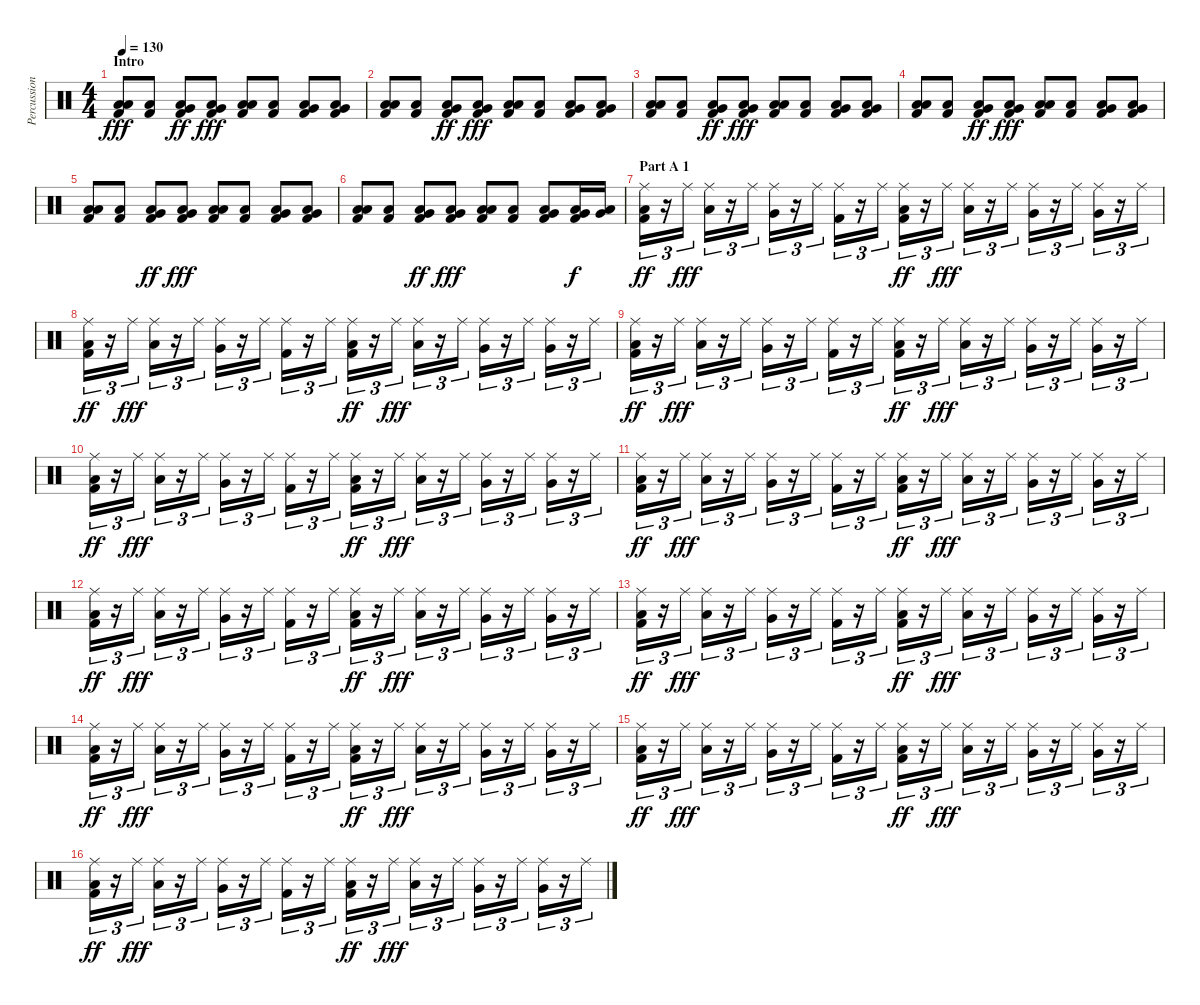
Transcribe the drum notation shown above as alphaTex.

\track ("Percussion" "Percussion") {instrument percussion}
\staff {score}
\articulation defaults
\ts (4 4)
\section ("" "Intro")
\tempo 130
\clef neutral
\ks c
("Low Tom (hit)" "Low Floor Tom (hit)" "Kick (hit) 2").8{dy fff} ("Low Tom (hit)" "Kick (hit) 2").8 ("Low Tom (hit)" "Very Low Tom (hit)" "Kick (hit) 2").8{dy ff} ("Low Tom (hit)" "Very Low Tom (hit)" "Kick (hit) 2").8{dy fff} ("Low Tom (hit)" "Low Floor Tom (hit)" "Kick (hit) 2").8 ("Low Tom (hit)" "Kick (hit) 2").8 ("Low Tom (hit)" "Very Low Tom (hit)" "Kick (hit) 2").8 ("Low Tom (hit)" "Very Low Tom (hit)" "Kick (hit) 2").8 |
("Low Tom (hit)" "Low Floor Tom (hit)" "Kick (hit) 2").8 ("Low Tom (hit)" "Kick (hit) 2").8 ("Low Tom (hit)" "Very Low Tom (hit)" "Kick (hit) 2").8{dy ff} ("Low Tom (hit)" "Very Low Tom (hit)" "Kick (hit) 2").8{dy fff} ("Low Tom (hit)" "Low Floor Tom (hit)" "Kick (hit) 2").8 ("Low Tom (hit)" "Kick (hit) 2").8 ("Low Tom (hit)" "Very Low Tom (hit)" "Kick (hit) 2").8 ("Low Tom (hit)" "Very Low Tom (hit)" "Kick (hit) 2").8 |
("Low Tom (hit)" "Low Floor Tom (hit)" "Kick (hit) 2").8 ("Low Tom (hit)" "Kick (hit) 2").8 ("Low Tom (hit)" "Very Low Tom (hit)" "Kick (hit) 2").8{dy ff} ("Low Tom (hit)" "Very Low Tom (hit)" "Kick (hit) 2").8{dy fff} ("Low Tom (hit)" "Low Floor Tom (hit)" "Kick (hit) 2").8 ("Low Tom (hit)" "Kick (hit) 2").8 ("Low Tom (hit)" "Very Low Tom (hit)" "Kick (hit) 2").8 ("Low Tom (hit)" "Very Low Tom (hit)" "Kick (hit) 2").8 |
("Low Tom (hit)" "Low Floor Tom (hit)" "Kick (hit) 2").8 ("Low Tom (hit)" "Kick (hit) 2").8 ("Low Tom (hit)" "Very Low Tom (hit)" "Kick (hit) 2").8{dy ff} ("Low Tom (hit)" "Very Low Tom (hit)" "Kick (hit) 2").8{dy fff} ("Low Tom (hit)" "Low Floor Tom (hit)" "Kick (hit) 2").8 ("Low Tom (hit)" "Kick (hit) 2").8 ("Low Tom (hit)" "Very Low Tom (hit)" "Kick (hit) 2").8 ("Low Tom (hit)" "Very Low Tom (hit)" "Kick (hit) 2").8 |
("Low Tom (hit)" "Low Floor Tom (hit)" "Kick (hit) 2").8 ("Low Tom (hit)" "Kick (hit) 2").8 ("Low Tom (hit)" "Very Low Tom (hit)" "Kick (hit) 2").8{dy ff} ("Low Tom (hit)" "Very Low Tom (hit)" "Kick (hit) 2").8{dy fff} ("Low Tom (hit)" "Low Floor Tom (hit)" "Kick (hit) 2").8 ("Low Tom (hit)" "Kick (hit) 2").8 ("Low Tom (hit)" "Very Low Tom (hit)" "Kick (hit) 2").8 ("Low Tom (hit)" "Very Low Tom (hit)" "Kick (hit) 2").8 |
("Low Tom (hit)" "Low Floor Tom (hit)" "Kick (hit) 2").8 ("Low Tom (hit)" "Kick (hit) 2").8 ("Low Tom (hit)" "Very Low Tom (hit)" "Kick (hit) 2").8{dy ff} ("Low Tom (hit)" "Very Low Tom (hit)" "Kick (hit) 2").8{dy fff} ("Low Tom (hit)" "Low Floor Tom (hit)" "Kick (hit) 2").8 ("Low Tom (hit)" "Kick (hit) 2").8 ("Low Tom (hit)" "Very Low Tom (hit)" "Kick (hit) 2").8 ("Low Tom (hit)" "Very Low Tom (hit)" "Kick (hit) 2").16{dy f} ("Low Tom (hit)" "Very Low Tom (hit)").16 |
\section ("" "Part A 1")
("Ride (middle)" "Low Tom (hit)" "Kick (hit) 2").16{tu (3 2) dy ff} r.16{tu (3 2)} "Ride (middle)".16{tu (3 2) dy fff} ("Ride (middle)" "Low Floor Tom (hit)").16{tu (3 2)} r.16{tu (3 2)} "Ride (middle)".16{tu (3 2)} ("Ride (middle)" "Very Low Tom (hit)").16{tu (3 2)} r.16{tu (3 2)} "Ride (middle)".16{tu (3 2)} ("Ride (middle)" "Kick (hit) 2").16{tu (3 2)} r.16{tu (3 2)} "Ride (middle)".16{tu (3 2)} ("Ride (middle)" "Low Tom (hit)" "Kick (hit) 2").16{tu (3 2) dy ff} r.16{tu (3 2)} "Ride (middle)".16{tu (3 2) dy fff} ("Ride (middle)" "Low Floor Tom (hit)").16{tu (3 2)} r.16{tu (3 2)} "Ride (middle)".16{tu (3 2)} ("Ride (middle)" "Very Low Tom (hit)").16{tu (3 2)} r.16{tu (3 2)} "Ride (middle)".16{tu (3 2)} ("Ride (middle)" "Very Low Tom (hit)").16{tu (3 2)} r.16{tu (3 2)} "Ride (middle)".16{tu (3 2)} |
("Ride (middle)" "Low Tom (hit)" "Kick (hit) 2").16{tu (3 2) dy ff} r.16{tu (3 2)} "Ride (middle)".16{tu (3 2) dy fff} ("Ride (middle)" "Low Floor Tom (hit)").16{tu (3 2)} r.16{tu (3 2)} "Ride (middle)".16{tu (3 2)} ("Ride (middle)" "Very Low Tom (hit)").16{tu (3 2)} r.16{tu (3 2)} "Ride (middle)".16{tu (3 2)} ("Ride (middle)" "Kick (hit) 2").16{tu (3 2)} r.16{tu (3 2)} "Ride (middle)".16{tu (3 2)} ("Ride (middle)" "Low Tom (hit)" "Kick (hit) 2").16{tu (3 2) dy ff} r.16{tu (3 2)} "Ride (middle)".16{tu (3 2) dy fff} ("Ride (middle)" "Low Floor Tom (hit)").16{tu (3 2)} r.16{tu (3 2)} "Ride (middle)".16{tu (3 2)} ("Ride (middle)" "Very Low Tom (hit)").16{tu (3 2)} r.16{tu (3 2)} "Ride (middle)".16{tu (3 2)} ("Ride (middle)" "Very Low Tom (hit)").16{tu (3 2)} r.16{tu (3 2)} "Ride (middle)".16{tu (3 2)} |
("Ride (middle)" "Low Tom (hit)" "Kick (hit) 2").16{tu (3 2) dy ff} r.16{tu (3 2)} "Ride (middle)".16{tu (3 2) dy fff} ("Ride (middle)" "Low Floor Tom (hit)").16{tu (3 2)} r.16{tu (3 2)} "Ride (middle)".16{tu (3 2)} ("Ride (middle)" "Very Low Tom (hit)").16{tu (3 2)} r.16{tu (3 2)} "Ride (middle)".16{tu (3 2)} ("Ride (middle)" "Kick (hit) 2").16{tu (3 2)} r.16{tu (3 2)} "Ride (middle)".16{tu (3 2)} ("Ride (middle)" "Low Tom (hit)" "Kick (hit) 2").16{tu (3 2) dy ff} r.16{tu (3 2)} "Ride (middle)".16{tu (3 2) dy fff} ("Ride (middle)" "Low Floor Tom (hit)").16{tu (3 2)} r.16{tu (3 2)} "Ride (middle)".16{tu (3 2)} ("Ride (middle)" "Very Low Tom (hit)").16{tu (3 2)} r.16{tu (3 2)} "Ride (middle)".16{tu (3 2)} ("Ride (middle)" "Very Low Tom (hit)").16{tu (3 2)} r.16{tu (3 2)} "Ride (middle)".16{tu (3 2)} |
("Ride (middle)" "Low Tom (hit)" "Kick (hit) 2").16{tu (3 2) dy ff} r.16{tu (3 2)} "Ride (middle)".16{tu (3 2) dy fff} ("Ride (middle)" "Low Floor Tom (hit)").16{tu (3 2)} r.16{tu (3 2)} "Ride (middle)".16{tu (3 2)} ("Ride (middle)" "Very Low Tom (hit)").16{tu (3 2)} r.16{tu (3 2)} "Ride (middle)".16{tu (3 2)} ("Ride (middle)" "Kick (hit) 2").16{tu (3 2)} r.16{tu (3 2)} "Ride (middle)".16{tu (3 2)} ("Ride (middle)" "Low Tom (hit)" "Kick (hit) 2").16{tu (3 2) dy ff} r.16{tu (3 2)} "Ride (middle)".16{tu (3 2) dy fff} ("Ride (middle)" "Low Floor Tom (hit)").16{tu (3 2)} r.16{tu (3 2)} "Ride (middle)".16{tu (3 2)} ("Ride (middle)" "Very Low Tom (hit)").16{tu (3 2)} r.16{tu (3 2)} "Ride (middle)".16{tu (3 2)} ("Ride (middle)" "Very Low Tom (hit)").16{tu (3 2)} r.16{tu (3 2)} "Ride (middle)".16{tu (3 2)} |
("Ride (middle)" "Low Tom (hit)" "Kick (hit) 2").16{tu (3 2) dy ff} r.16{tu (3 2)} "Ride (middle)".16{tu (3 2) dy fff} ("Ride (middle)" "Low Floor Tom (hit)").16{tu (3 2)} r.16{tu (3 2)} "Ride (middle)".16{tu (3 2)} ("Ride (middle)" "Very Low Tom (hit)").16{tu (3 2)} r.16{tu (3 2)} "Ride (middle)".16{tu (3 2)} ("Ride (middle)" "Kick (hit) 2").16{tu (3 2)} r.16{tu (3 2)} "Ride (middle)".16{tu (3 2)} ("Ride (middle)" "Low Tom (hit)" "Kick (hit) 2").16{tu (3 2) dy ff} r.16{tu (3 2)} "Ride (middle)".16{tu (3 2) dy fff} ("Ride (middle)" "Low Floor Tom (hit)").16{tu (3 2)} r.16{tu (3 2)} "Ride (middle)".16{tu (3 2)} ("Ride (middle)" "Very Low Tom (hit)").16{tu (3 2)} r.16{tu (3 2)} "Ride (middle)".16{tu (3 2)} ("Ride (middle)" "Very Low Tom (hit)").16{tu (3 2)} r.16{tu (3 2)} "Ride (middle)".16{tu (3 2)} |
("Ride (middle)" "Low Tom (hit)" "Kick (hit) 2").16{tu (3 2) dy ff} r.16{tu (3 2)} "Ride (middle)".16{tu (3 2) dy fff} ("Ride (middle)" "Low Floor Tom (hit)").16{tu (3 2)} r.16{tu (3 2)} "Ride (middle)".16{tu (3 2)} ("Ride (middle)" "Very Low Tom (hit)").16{tu (3 2)} r.16{tu (3 2)} "Ride (middle)".16{tu (3 2)} ("Ride (middle)" "Kick (hit) 2").16{tu (3 2)} r.16{tu (3 2)} "Ride (middle)".16{tu (3 2)} ("Ride (middle)" "Low Tom (hit)" "Kick (hit) 2").16{tu (3 2) dy ff} r.16{tu (3 2)} "Ride (middle)".16{tu (3 2) dy fff} ("Ride (middle)" "Low Floor Tom (hit)").16{tu (3 2)} r.16{tu (3 2)} "Ride (middle)".16{tu (3 2)} ("Ride (middle)" "Very Low Tom (hit)").16{tu (3 2)} r.16{tu (3 2)} "Ride (middle)".16{tu (3 2)} ("Ride (middle)" "Very Low Tom (hit)").16{tu (3 2)} r.16{tu (3 2)} "Ride (middle)".16{tu (3 2)} |
("Ride (middle)" "Low Tom (hit)" "Kick (hit) 2").16{tu (3 2) dy ff} r.16{tu (3 2)} "Ride (middle)".16{tu (3 2) dy fff} ("Ride (middle)" "Low Floor Tom (hit)").16{tu (3 2)} r.16{tu (3 2)} "Ride (middle)".16{tu (3 2)} ("Ride (middle)" "Very Low Tom (hit)").16{tu (3 2)} r.16{tu (3 2)} "Ride (middle)".16{tu (3 2)} ("Ride (middle)" "Kick (hit) 2").16{tu (3 2)} r.16{tu (3 2)} "Ride (middle)".16{tu (3 2)} ("Ride (middle)" "Low Tom (hit)" "Kick (hit) 2").16{tu (3 2) dy ff} r.16{tu (3 2)} "Ride (middle)".16{tu (3 2) dy fff} ("Ride (middle)" "Low Floor Tom (hit)").16{tu (3 2)} r.16{tu (3 2)} "Ride (middle)".16{tu (3 2)} ("Ride (middle)" "Very Low Tom (hit)").16{tu (3 2)} r.16{tu (3 2)} "Ride (middle)".16{tu (3 2)} ("Ride (middle)" "Very Low Tom (hit)").16{tu (3 2)} r.16{tu (3 2)} "Ride (middle)".16{tu (3 2)} |
("Ride (middle)" "Low Tom (hit)" "Kick (hit) 2").16{tu (3 2) dy ff} r.16{tu (3 2)} "Ride (middle)".16{tu (3 2) dy fff} ("Ride (middle)" "Low Floor Tom (hit)").16{tu (3 2)} r.16{tu (3 2)} "Ride (middle)".16{tu (3 2)} ("Ride (middle)" "Very Low Tom (hit)").16{tu (3 2)} r.16{tu (3 2)} "Ride (middle)".16{tu (3 2)} ("Ride (middle)" "Kick (hit) 2").16{tu (3 2)} r.16{tu (3 2)} "Ride (middle)".16{tu (3 2)} ("Ride (middle)" "Low Tom (hit)" "Kick (hit) 2").16{tu (3 2) dy ff} r.16{tu (3 2)} "Ride (middle)".16{tu (3 2) dy fff} ("Ride (middle)" "Low Floor Tom (hit)").16{tu (3 2)} r.16{tu (3 2)} "Ride (middle)".16{tu (3 2)} ("Ride (middle)" "Very Low Tom (hit)").16{tu (3 2)} r.16{tu (3 2)} "Ride (middle)".16{tu (3 2)} ("Ride (middle)" "Very Low Tom (hit)").16{tu (3 2)} r.16{tu (3 2)} "Ride (middle)".16{tu (3 2)} |
("Ride (middle)" "Low Tom (hit)" "Kick (hit) 2").16{tu (3 2) dy ff} r.16{tu (3 2)} "Ride (middle)".16{tu (3 2) dy fff} ("Ride (middle)" "Low Floor Tom (hit)").16{tu (3 2)} r.16{tu (3 2)} "Ride (middle)".16{tu (3 2)} ("Ride (middle)" "Very Low Tom (hit)").16{tu (3 2)} r.16{tu (3 2)} "Ride (middle)".16{tu (3 2)} ("Ride (middle)" "Kick (hit) 2").16{tu (3 2)} r.16{tu (3 2)} "Ride (middle)".16{tu (3 2)} ("Ride (middle)" "Low Tom (hit)" "Kick (hit) 2").16{tu (3 2) dy ff} r.16{tu (3 2)} "Ride (middle)".16{tu (3 2) dy fff} ("Ride (middle)" "Low Floor Tom (hit)").16{tu (3 2)} r.16{tu (3 2)} "Ride (middle)".16{tu (3 2)} ("Ride (middle)" "Very Low Tom (hit)").16{tu (3 2)} r.16{tu (3 2)} "Ride (middle)".16{tu (3 2)} ("Ride (middle)" "Very Low Tom (hit)").16{tu (3 2)} r.16{tu (3 2)} "Ride (middle)".16{tu (3 2)} |
("Ride (middle)" "Low Tom (hit)" "Kick (hit) 2").16{tu (3 2) dy ff} r.16{tu (3 2)} "Ride (middle)".16{tu (3 2) dy fff} ("Ride (middle)" "Low Floor Tom (hit)").16{tu (3 2)} r.16{tu (3 2)} "Ride (middle)".16{tu (3 2)} ("Ride (middle)" "Very Low Tom (hit)").16{tu (3 2)} r.16{tu (3 2)} "Ride (middle)".16{tu (3 2)} ("Ride (middle)" "Kick (hit) 2").16{tu (3 2)} r.16{tu (3 2)} "Ride (middle)".16{tu (3 2)} ("Ride (middle)" "Low Tom (hit)" "Kick (hit) 2").16{tu (3 2) dy ff} r.16{tu (3 2)} "Ride (middle)".16{tu (3 2) dy fff} ("Ride (middle)" "Low Floor Tom (hit)").16{tu (3 2)} r.16{tu (3 2)} "Ride (middle)".16{tu (3 2)} ("Ride (middle)" "Very Low Tom (hit)").16{tu (3 2)} r.16{tu (3 2)} "Ride (middle)".16{tu (3 2)} ("Ride (middle)" "Very Low Tom (hit)").16{tu (3 2)} r.16{tu (3 2)} "Ride (middle)".16{tu (3 2)}
